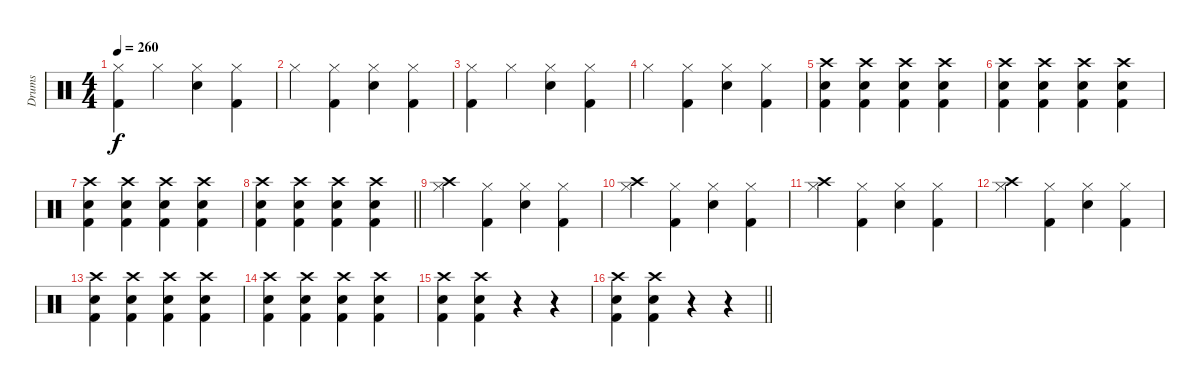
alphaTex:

\track ("Drums" "Drums") {instrument percussion bank 2}
\staff {score}
\articulation defaults
\ts (4 4)
\tempo 260
\clef neutral
\ks c
("Hi-Hat (closed)" "Kick (hit) 2").4{dy f} "Hi-Hat (closed)".4 ("Hi-Hat (closed)" "Snare (hit) 2").4 ("Hi-Hat (closed)" "Kick (hit) 2").4 |
"Hi-Hat (closed)".4 ("Hi-Hat (closed)" "Kick (hit) 2").4 ("Hi-Hat (closed)" "Snare (hit) 2").4 ("Hi-Hat (closed)" "Kick (hit) 2").4 |
("Hi-Hat (closed)" "Kick (hit) 2").4 "Hi-Hat (closed)".4 ("Hi-Hat (closed)" "Snare (hit) 2").4 ("Hi-Hat (closed)" "Kick (hit) 2").4 |
"Hi-Hat (closed)".4 ("Hi-Hat (closed)" "Kick (hit) 2").4 ("Hi-Hat (closed)" "Snare (hit) 2").4 ("Hi-Hat (closed)" "Kick (hit) 2").4 |
("Kick (hit) 2" "Snare (hit) 2" "Crash high (hit)").4 ("Kick (hit) 2" "Snare (hit) 2" "Crash high (hit)").4 ("Kick (hit) 2" "Snare (hit) 2" "Crash high (hit)").4 ("Kick (hit) 2" "Snare (hit) 2" "Crash high (hit)").4 |
("Kick (hit) 2" "Snare (hit) 2" "Crash high (hit)").4 ("Kick (hit) 2" "Snare (hit) 2" "Crash high (hit)").4 ("Kick (hit) 2" "Snare (hit) 2" "Crash high (hit)").4 ("Kick (hit) 2" "Snare (hit) 2" "Crash high (hit)").4 |
("Kick (hit) 2" "Snare (hit) 2" "Crash high (hit)").4 ("Kick (hit) 2" "Snare (hit) 2" "Crash high (hit)").4 ("Kick (hit) 2" "Snare (hit) 2" "Crash high (hit)").4 ("Kick (hit) 2" "Snare (hit) 2" "Crash high (hit)").4 |
\barLineRight lightlight
("Kick (hit) 2" "Snare (hit) 2" "Crash high (hit)").4 ("Kick (hit) 2" "Snare (hit) 2" "Crash high (hit)").4 ("Kick (hit) 2" "Snare (hit) 2" "Crash high (hit)").4 ("Kick (hit) 2" "Snare (hit) 2" "Crash high (hit)").4 |
("Hi-Hat (closed)" "Crash high (hit)").4 ("Hi-Hat (closed)" "Kick (hit) 2").4 ("Hi-Hat (closed)" "Snare (hit) 2").4 ("Hi-Hat (closed)" "Kick (hit) 2").4 |
("Hi-Hat (closed)" "Crash high (hit)").4 ("Hi-Hat (closed)" "Kick (hit) 2").4 ("Hi-Hat (closed)" "Snare (hit) 2").4 ("Hi-Hat (closed)" "Kick (hit) 2").4 |
("Hi-Hat (closed)" "Crash high (hit)").4 ("Hi-Hat (closed)" "Kick (hit) 2").4 ("Hi-Hat (closed)" "Snare (hit) 2").4 ("Hi-Hat (closed)" "Kick (hit) 2").4 |
("Hi-Hat (closed)" "Crash high (hit)").4 ("Hi-Hat (closed)" "Kick (hit) 2").4 ("Hi-Hat (closed)" "Snare (hit) 2").4 ("Hi-Hat (closed)" "Kick (hit) 2").4 |
("Kick (hit) 2" "Snare (hit) 2" "Crash high (hit)").4 ("Kick (hit) 2" "Snare (hit) 2" "Crash high (hit)").4 ("Kick (hit) 2" "Snare (hit) 2" "Crash high (hit)").4 ("Kick (hit) 2" "Snare (hit) 2" "Crash high (hit)").4 |
("Kick (hit) 2" "Snare (hit) 2" "Crash high (hit)").4 ("Kick (hit) 2" "Snare (hit) 2" "Crash high (hit)").4 ("Kick (hit) 2" "Snare (hit) 2" "Crash high (hit)").4 ("Kick (hit) 2" "Snare (hit) 2" "Crash high (hit)").4 |
("Kick (hit) 2" "Crash high (hit)" "Snare (hit) 2").4 ("Kick (hit) 2" "Crash high (hit)" "Snare (hit) 2").4 r.4 r.4 |
\barLineRight lightlight
("Kick (hit) 2" "Crash high (hit)" "Snare (hit) 2").4 ("Kick (hit) 2" "Crash high (hit)" "Snare (hit) 2").4 r.4 r.4
